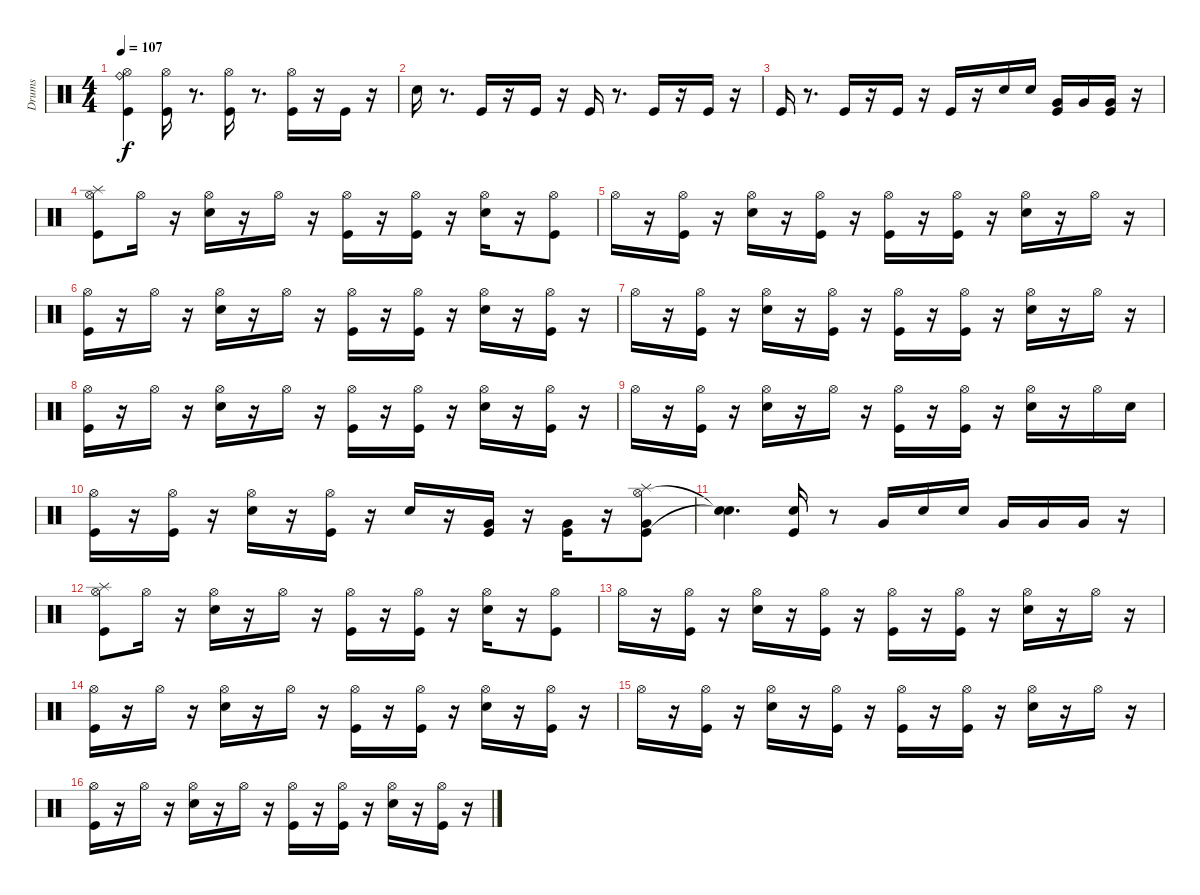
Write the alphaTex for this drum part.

\track ("Drums" "Drums") {instrument percussion}
\staff {score}
\articulation defaults
\ts (4 4)
\tempo 107
\clef neutral
\ks c
("Ride (bell)" "Kick (hit)" "Hi-Hat (open)").4{dy f} ("Hi-Hat (open)" "Kick (hit)").16 r.8{d} ("Hi-Hat (open)" "Kick (hit)").16 r.8{d} ("Kick (hit)" "Hi-Hat (open)").16 r.16 "Kick (hit)".16 r.16 |
"Electric Snare (hit)".16 r.8{d} "Kick (hit)".16 r.16 "Kick (hit)".16 r.16 "Kick (hit)".16 r.8{d} "Kick (hit)".16 r.16 "Kick (hit)".16 r.16 |
"Kick (hit)".16 r.8{d} "Kick (hit)".16 r.16 "Kick (hit)".16 r.16 "Kick (hit)".16 r.16 "Electric Snare (hit)".16 "Electric Snare (hit)".16 ("Kick (hit)" "Very Low Tom (hit)").16 "Very Low Tom (hit)".16 ("Kick (hit)" "Very Low Tom (hit)").16 r.16 |
("Kick (hit)" "Hi-Hat (open)" "Splash (hit)").8 "Hi-Hat (open)".16 r.16 ("Hi-Hat (open)" "Electric Snare (hit)").16 r.16 "Hi-Hat (open)".16 r.16 ("Hi-Hat (open)" "Kick (hit)").16 r.16 ("Hi-Hat (open)" "Kick (hit)").16 r.16 ("Electric Snare (hit)" "Hi-Hat (open)").16 r.16 ("Hi-Hat (open)" "Kick (hit)").8 |
"Hi-Hat (open)".16 r.16 ("Kick (hit)" "Hi-Hat (open)").16 r.16 ("Hi-Hat (open)" "Electric Snare (hit)").16 r.16 ("Kick (hit)" "Hi-Hat (open)").16 r.16 ("Kick (hit)" "Hi-Hat (open)").16 r.16 ("Hi-Hat (open)" "Kick (hit)").16 r.16 ("Electric Snare (hit)" "Hi-Hat (open)").16 r.16 "Hi-Hat (open)".16 r.16 |
("Kick (hit)" "Hi-Hat (open)").16 r.16 "Hi-Hat (open)".16 r.16 ("Electric Snare (hit)" "Hi-Hat (open)").16 r.16 "Hi-Hat (open)".16 r.16 ("Kick (hit)" "Hi-Hat (open)").16 r.16 ("Kick (hit)" "Hi-Hat (open)").16 r.16 ("Hi-Hat (open)" "Electric Snare (hit)").16 r.16 ("Kick (hit)" "Hi-Hat (open)").16 r.16 |
"Hi-Hat (open)".16 r.16 ("Hi-Hat (open)" "Kick (hit)").16 r.16 ("Electric Snare (hit)" "Hi-Hat (open)").16 r.16 ("Hi-Hat (open)" "Kick (hit)").16 r.16 ("Hi-Hat (open)" "Kick (hit)").16 r.16 ("Hi-Hat (open)" "Kick (hit)").16 r.16 ("Hi-Hat (open)" "Electric Snare (hit)").16 r.16 "Hi-Hat (open)".16 r.16 |
("Kick (hit)" "Hi-Hat (open)").16 r.16 "Hi-Hat (open)".16 r.16 ("Hi-Hat (open)" "Electric Snare (hit)").16 r.16 "Hi-Hat (open)".16 r.16 ("Kick (hit)" "Hi-Hat (open)").16 r.16 ("Kick (hit)" "Hi-Hat (open)").16 r.16 ("Electric Snare (hit)" "Hi-Hat (open)").16 r.16 ("Kick (hit)" "Hi-Hat (open)").16 r.16 |
"Hi-Hat (open)".16 r.16 ("Kick (hit)" "Hi-Hat (open)").16 r.16 ("Hi-Hat (open)" "Electric Snare (hit)").16 r.16 "Hi-Hat (open)".16 r.16 ("Hi-Hat (open)" "Kick (hit)").16 r.16 ("Hi-Hat (open)" "Kick (hit)").16 r.16 ("Electric Snare (hit)" "Hi-Hat (open)").16 r.16 "Hi-Hat (open)".16 "Electric Snare (hit)".16 |
("Hi-Hat (open)" "Kick (hit)").16 r.16 ("Hi-Hat (open)" "Kick (hit)").16 r.16 ("Hi-Hat (open)" "Electric Snare (hit)").16 r.16 ("Hi-Hat (open)" "Kick (hit)").16 r.16 "Electric Snare (hit)".16 r.16 ("Very Low Tom (hit)" "Kick (hit)").16 r.16 ("Very Low Tom (hit)" "Kick (hit)").16 r.16 ("Hi-Hat (open)" "Kick (hit)" "Very Low Tom (hit)" "Splash (hit)").8 |
("Snare (hit)"{t} "Snare (hit)"{t}).4{d} ("Electric Snare (hit)" "Kick (hit)").16 r.8 "Very Low Tom (hit)".16 "Electric Snare (hit)".16 "Electric Snare (hit)".16 "Very Low Tom (hit)".16 "Very Low Tom (hit)".16 "Very Low Tom (hit)".16 r.16 |
("Kick (hit)" "Hi-Hat (open)" "Splash (hit)").8 "Hi-Hat (open)".16 r.16 ("Hi-Hat (open)" "Electric Snare (hit)").16 r.16 "Hi-Hat (open)".16 r.16 ("Kick (hit)" "Hi-Hat (open)").16 r.16 ("Hi-Hat (open)" "Kick (hit)").16 r.16 ("Electric Snare (hit)" "Hi-Hat (open)").16 r.16 ("Kick (hit)" "Hi-Hat (open)").8 |
"Hi-Hat (open)".16 r.16 ("Hi-Hat (open)" "Kick (hit)").16 r.16 ("Electric Snare (hit)" "Hi-Hat (open)").16 r.16 ("Hi-Hat (open)" "Kick (hit)").16 r.16 ("Kick (hit)" "Hi-Hat (open)").16 r.16 ("Hi-Hat (open)" "Kick (hit)").16 r.16 ("Electric Snare (hit)" "Hi-Hat (open)").16 r.16 "Hi-Hat (open)".16 r.16 |
("Kick (hit)" "Hi-Hat (open)").16 r.16 "Hi-Hat (open)".16 r.16 ("Hi-Hat (open)" "Electric Snare (hit)").16 r.16 "Hi-Hat (open)".16 r.16 ("Hi-Hat (open)" "Kick (hit)").16 r.16 ("Kick (hit)" "Hi-Hat (open)").16 r.16 ("Hi-Hat (open)" "Electric Snare (hit)").16 r.16 ("Kick (hit)" "Hi-Hat (open)").16 r.16 |
"Hi-Hat (open)".16 r.16 ("Hi-Hat (open)" "Kick (hit)").16 r.16 ("Electric Snare (hit)" "Hi-Hat (open)").16 r.16 ("Kick (hit)" "Hi-Hat (open)").16 r.16 ("Kick (hit)" "Hi-Hat (open)").16 r.16 ("Kick (hit)" "Hi-Hat (open)").16 r.16 ("Hi-Hat (open)" "Electric Snare (hit)").16 r.16 "Hi-Hat (open)".16 r.16 |
("Hi-Hat (open)" "Kick (hit)").16 r.16 "Hi-Hat (open)".16 r.16 ("Hi-Hat (open)" "Electric Snare (hit)").16 r.16 "Hi-Hat (open)".16 r.16 ("Kick (hit)" "Hi-Hat (open)").16 r.16 ("Kick (hit)" "Hi-Hat (open)").16 r.16 ("Hi-Hat (open)" "Electric Snare (hit)").16 r.16 ("Kick (hit)" "Hi-Hat (open)").16 r.16
